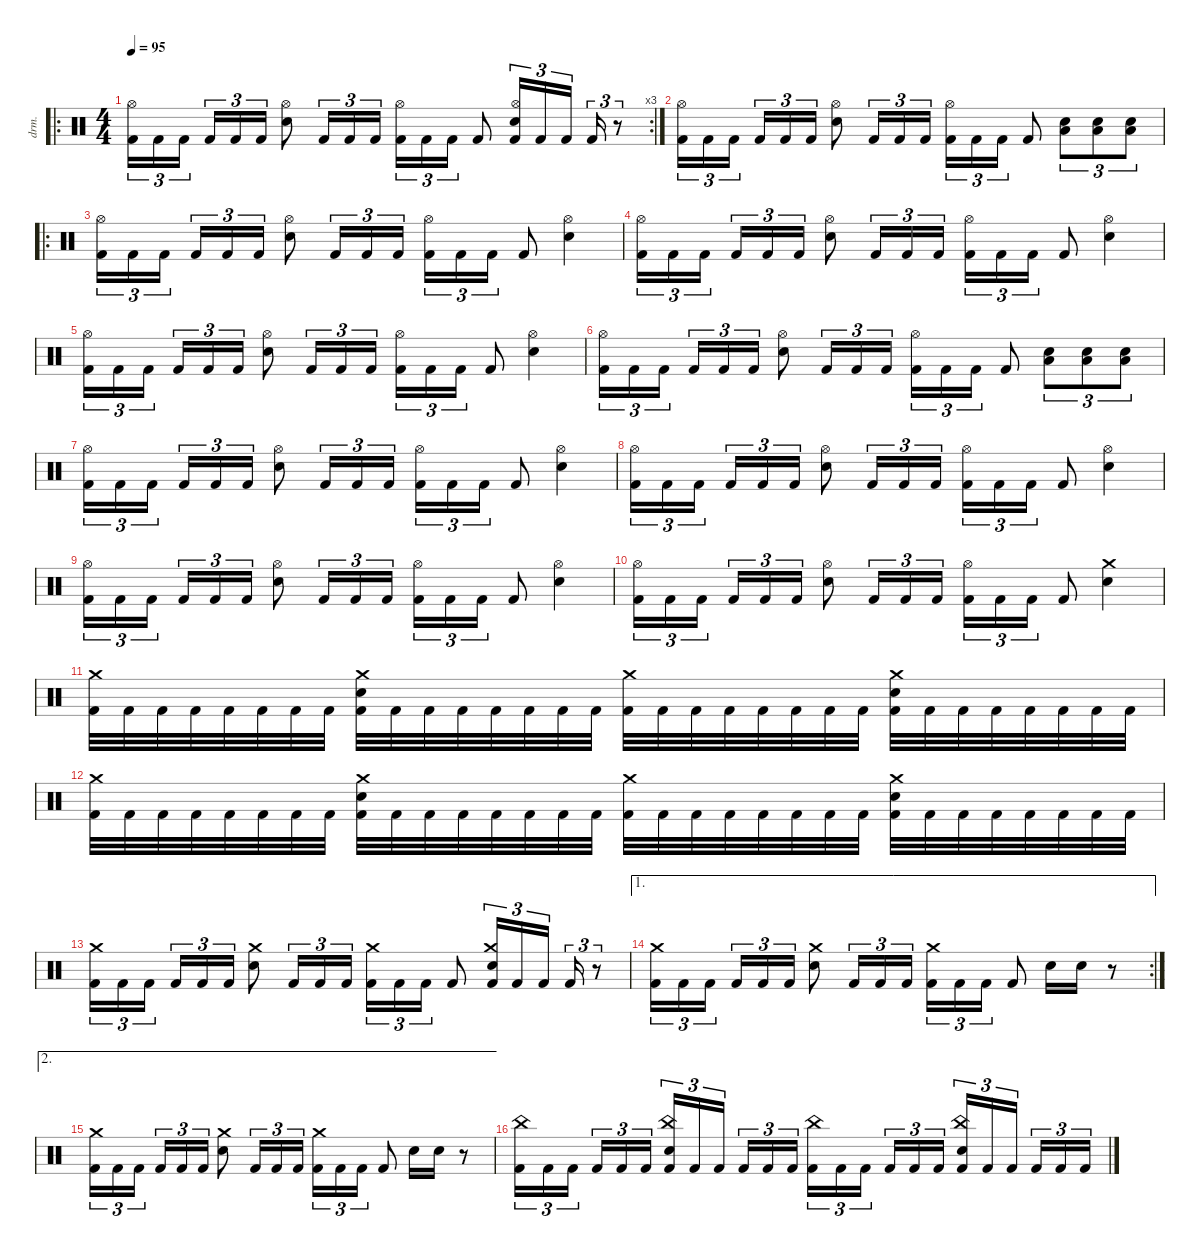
\defaultSystemsLayout 4
\hideDynamics
\bracketExtendMode nobrackets
\otherSystemsTrackNameOrientation horizontal
\track ("FATTY!" "drm.") {instrument percussion}
\staff {score}
\articulation defaults
\ro
\rc 3
\ts (4 4)
\tempo 95
\clef neutral
\ks c
("Hi-Hat (open)" "Kick (hit) 2").16{tu (3 2) dy f beam Down} "Kick (hit) 2".16{tu (3 2) beam Down} "Kick (hit) 2".16{tu (3 2) beam Down} "Kick (hit) 2".16{tu (3 2) beam Up} "Kick (hit) 2".16{tu (3 2) beam Up} "Kick (hit) 2".16{tu (3 2) beam Up} ("Hi-Hat (open)" "Snare (hit) 2").8{beam Down} "Kick (hit) 2".16{tu (3 2) beam Up} "Kick (hit) 2".16{tu (3 2) beam Up} "Kick (hit) 2".16{tu (3 2) beam Up} ("Hi-Hat (open)" "Kick (hit) 2").16{tu (3 2) beam Down} "Kick (hit) 2".16{tu (3 2) beam Down} "Kick (hit) 2".16{tu (3 2) beam Down} "Kick (hit) 2".8{beam Up} ("Hi-Hat (open)" "Snare (hit) 2" "Kick (hit) 2").16{tu (3 2) beam Up} "Kick (hit) 2".16{tu (3 2) beam Up} "Kick (hit) 2".16{tu (3 2) beam Up} "Kick (hit) 2".16{tu (3 2) beam Up} r.8{tu (3 2) beam Up} |
("Hi-Hat (open)" "Kick (hit) 2").16{tu (3 2) beam Down} "Kick (hit) 2".16{tu (3 2) beam Down} "Kick (hit) 2".16{tu (3 2) beam Down} "Kick (hit) 2".16{tu (3 2) beam Up} "Kick (hit) 2".16{tu (3 2) beam Up} "Kick (hit) 2".16{tu (3 2) beam Up} ("Hi-Hat (open)" "Snare (hit) 2").8{beam Down} "Kick (hit) 2".16{tu (3 2) beam Up} "Kick (hit) 2".16{tu (3 2) beam Up} "Kick (hit) 2".16{tu (3 2) beam Up} ("Hi-Hat (open)" "Kick (hit) 2").16{tu (3 2) beam Down} "Kick (hit) 2".16{tu (3 2) beam Down} "Kick (hit) 2".16{tu (3 2) beam Down} "Kick (hit) 2".8{beam Up} ("Low Tom (hit)" "Snare (hit) 2").8{tu (3 2) beam Down} ("Low Tom (hit)" "Snare (hit) 2").8{tu (3 2) beam Down} ("Low Tom (hit)" "Snare (hit) 2").8{tu (3 2) beam Down} |
\ro
("Hi-Hat (open)" "Kick (hit) 2").16{tu (3 2) beam Down} "Kick (hit) 2".16{tu (3 2) beam Down} "Kick (hit) 2".16{tu (3 2) beam Down} "Kick (hit) 2".16{tu (3 2) beam Up} "Kick (hit) 2".16{tu (3 2) beam Up} "Kick (hit) 2".16{tu (3 2) beam Up} ("Hi-Hat (open)" "Snare (hit) 2").8{beam Down} "Kick (hit) 2".16{tu (3 2) beam Up} "Kick (hit) 2".16{tu (3 2) beam Up} "Kick (hit) 2".16{tu (3 2) beam Up} ("Hi-Hat (open)" "Kick (hit) 2").16{tu (3 2) beam Down} "Kick (hit) 2".16{tu (3 2) beam Down} "Kick (hit) 2".16{tu (3 2) beam Down} "Kick (hit) 2".8{beam Up} ("Hi-Hat (open)" "Snare (hit) 2").4{beam Down} |
("Hi-Hat (open)" "Kick (hit) 2").16{tu (3 2) beam Down} "Kick (hit) 2".16{tu (3 2) beam Down} "Kick (hit) 2".16{tu (3 2) beam Down} "Kick (hit) 2".16{tu (3 2) beam Up} "Kick (hit) 2".16{tu (3 2) beam Up} "Kick (hit) 2".16{tu (3 2) beam Up} ("Hi-Hat (open)" "Snare (hit) 2").8{beam Down} "Kick (hit) 2".16{tu (3 2) beam Up} "Kick (hit) 2".16{tu (3 2) beam Up} "Kick (hit) 2".16{tu (3 2) beam Up} ("Hi-Hat (open)" "Kick (hit) 2").16{tu (3 2) beam Down} "Kick (hit) 2".16{tu (3 2) beam Down} "Kick (hit) 2".16{tu (3 2) beam Down} "Kick (hit) 2".8{beam Up} ("Hi-Hat (open)" "Snare (hit) 2").4{beam Down} |
("Hi-Hat (open)" "Kick (hit) 2").16{tu (3 2) beam Down} "Kick (hit) 2".16{tu (3 2) beam Down} "Kick (hit) 2".16{tu (3 2) beam Down} "Kick (hit) 2".16{tu (3 2) beam Up} "Kick (hit) 2".16{tu (3 2) beam Up} "Kick (hit) 2".16{tu (3 2) beam Up} ("Hi-Hat (open)" "Snare (hit) 2").8{beam Down} "Kick (hit) 2".16{tu (3 2) beam Up} "Kick (hit) 2".16{tu (3 2) beam Up} "Kick (hit) 2".16{tu (3 2) beam Up} ("Hi-Hat (open)" "Kick (hit) 2").16{tu (3 2) beam Down} "Kick (hit) 2".16{tu (3 2) beam Down} "Kick (hit) 2".16{tu (3 2) beam Down} "Kick (hit) 2".8{beam Up} ("Hi-Hat (open)" "Snare (hit) 2").4{beam Down} |
("Hi-Hat (open)" "Kick (hit) 2").16{tu (3 2) beam Down} "Kick (hit) 2".16{tu (3 2) beam Down} "Kick (hit) 2".16{tu (3 2) beam Down} "Kick (hit) 2".16{tu (3 2) beam Up} "Kick (hit) 2".16{tu (3 2) beam Up} "Kick (hit) 2".16{tu (3 2) beam Up} ("Hi-Hat (open)" "Snare (hit) 2").8{beam Down} "Kick (hit) 2".16{tu (3 2) beam Up} "Kick (hit) 2".16{tu (3 2) beam Up} "Kick (hit) 2".16{tu (3 2) beam Up} ("Hi-Hat (open)" "Kick (hit) 2").16{tu (3 2) beam Down} "Kick (hit) 2".16{tu (3 2) beam Down} "Kick (hit) 2".16{tu (3 2) beam Down} "Kick (hit) 2".8{beam Up} ("Low Tom (hit)" "Snare (hit) 2").8{tu (3 2) beam Down} ("Low Tom (hit)" "Snare (hit) 2").8{tu (3 2) beam Down} ("Low Tom (hit)" "Snare (hit) 2").8{tu (3 2) beam Down} |
("Hi-Hat (open)" "Kick (hit) 2").16{tu (3 2) beam Down} "Kick (hit) 2".16{tu (3 2) beam Down} "Kick (hit) 2".16{tu (3 2) beam Down} "Kick (hit) 2".16{tu (3 2) beam Up} "Kick (hit) 2".16{tu (3 2) beam Up} "Kick (hit) 2".16{tu (3 2) beam Up} ("Hi-Hat (open)" "Snare (hit) 2").8{beam Down} "Kick (hit) 2".16{tu (3 2) beam Up} "Kick (hit) 2".16{tu (3 2) beam Up} "Kick (hit) 2".16{tu (3 2) beam Up} ("Hi-Hat (open)" "Kick (hit) 2").16{tu (3 2) beam Down} "Kick (hit) 2".16{tu (3 2) beam Down} "Kick (hit) 2".16{tu (3 2) beam Down} "Kick (hit) 2".8{beam Up} ("Hi-Hat (open)" "Snare (hit) 2").4{beam Down} |
("Hi-Hat (open)" "Kick (hit) 2").16{tu (3 2) beam Down} "Kick (hit) 2".16{tu (3 2) beam Down} "Kick (hit) 2".16{tu (3 2) beam Down} "Kick (hit) 2".16{tu (3 2) beam Up} "Kick (hit) 2".16{tu (3 2) beam Up} "Kick (hit) 2".16{tu (3 2) beam Up} ("Hi-Hat (open)" "Snare (hit) 2").8{beam Down} "Kick (hit) 2".16{tu (3 2) beam Up} "Kick (hit) 2".16{tu (3 2) beam Up} "Kick (hit) 2".16{tu (3 2) beam Up} ("Hi-Hat (open)" "Kick (hit) 2").16{tu (3 2) beam Down} "Kick (hit) 2".16{tu (3 2) beam Down} "Kick (hit) 2".16{tu (3 2) beam Down} "Kick (hit) 2".8{beam Up} ("Hi-Hat (open)" "Snare (hit) 2").4{beam Down} |
("Hi-Hat (open)" "Kick (hit) 2").16{tu (3 2) beam Down} "Kick (hit) 2".16{tu (3 2) beam Down} "Kick (hit) 2".16{tu (3 2) beam Down} "Kick (hit) 2".16{tu (3 2) beam Up} "Kick (hit) 2".16{tu (3 2) beam Up} "Kick (hit) 2".16{tu (3 2) beam Up} ("Hi-Hat (open)" "Snare (hit) 2").8{beam Down} "Kick (hit) 2".16{tu (3 2) beam Up} "Kick (hit) 2".16{tu (3 2) beam Up} "Kick (hit) 2".16{tu (3 2) beam Up} ("Hi-Hat (open)" "Kick (hit) 2").16{tu (3 2) beam Down} "Kick (hit) 2".16{tu (3 2) beam Down} "Kick (hit) 2".16{tu (3 2) beam Down} "Kick (hit) 2".8{beam Up} ("Hi-Hat (open)" "Snare (hit) 2").4{beam Down} |
("Hi-Hat (open)" "Kick (hit) 2").16{tu (3 2) beam Down} "Kick (hit) 2".16{tu (3 2) beam Down} "Kick (hit) 2".16{tu (3 2) beam Down} "Kick (hit) 2".16{tu (3 2) beam Up} "Kick (hit) 2".16{tu (3 2) beam Up} "Kick (hit) 2".16{tu (3 2) beam Up} ("Hi-Hat (open)" "Snare (hit) 2").8{beam Down} "Kick (hit) 2".16{tu (3 2) beam Up} "Kick (hit) 2".16{tu (3 2) beam Up} "Kick (hit) 2".16{tu (3 2) beam Up} ("Hi-Hat (open)" "Kick (hit) 2").16{tu (3 2) beam Down} "Kick (hit) 2".16{tu (3 2) beam Down} "Kick (hit) 2".16{tu (3 2) beam Down} "Kick (hit) 2".8{beam Up} ("Crash medium (hit)" "Snare (hit) 2").4{beam Down} |
("Crash medium (hit)" "Kick (hit) 2").32{beam Down} "Kick (hit) 2".32{beam Down} "Kick (hit) 2".32{beam Down} "Kick (hit) 2".32{beam Down} "Kick (hit) 2".32{beam Down} "Kick (hit) 2".32{beam Down} "Kick (hit) 2".32{beam Down} "Kick (hit) 2".32{beam Down} ("Crash medium (hit)" "Snare (hit) 2" "Kick (hit) 2").32{beam Down} "Kick (hit) 2".32{beam Down} "Kick (hit) 2".32{beam Down} "Kick (hit) 2".32{beam Down} "Kick (hit) 2".32{beam Down} "Kick (hit) 2".32{beam Down} "Kick (hit) 2".32{beam Down} "Kick (hit) 2".32{beam Down} ("Crash medium (hit)" "Kick (hit) 2").32{beam Down} "Kick (hit) 2".32{beam Down} "Kick (hit) 2".32{beam Down} "Kick (hit) 2".32{beam Down} "Kick (hit) 2".32{beam Down} "Kick (hit) 2".32{beam Down} "Kick (hit) 2".32{beam Down} "Kick (hit) 2".32{beam Down} ("Crash medium (hit)" "Snare (hit) 2" "Kick (hit) 2").32{beam Down} "Kick (hit) 2".32{beam Down} "Kick (hit) 2".32{beam Down} "Kick (hit) 2".32{beam Down} "Kick (hit) 2".32{beam Down} "Kick (hit) 2".32{beam Down} "Kick (hit) 2".32{beam Down} "Kick (hit) 2".32{beam Down} |
("Crash medium (hit)" "Kick (hit) 2").32{beam Down} "Kick (hit) 2".32{beam Down} "Kick (hit) 2".32{beam Down} "Kick (hit) 2".32{beam Down} "Kick (hit) 2".32{beam Down} "Kick (hit) 2".32{beam Down} "Kick (hit) 2".32{beam Down} "Kick (hit) 2".32{beam Down} ("Crash medium (hit)" "Snare (hit) 2" "Kick (hit) 2").32{beam Down} "Kick (hit) 2".32{beam Down} "Kick (hit) 2".32{beam Down} "Kick (hit) 2".32{beam Down} "Kick (hit) 2".32{beam Down} "Kick (hit) 2".32{beam Down} "Kick (hit) 2".32{beam Down} "Kick (hit) 2".32{beam Down} ("Crash medium (hit)" "Kick (hit) 2").32{beam Down} "Kick (hit) 2".32{beam Down} "Kick (hit) 2".32{beam Down} "Kick (hit) 2".32{beam Down} "Kick (hit) 2".32{beam Down} "Kick (hit) 2".32{beam Down} "Kick (hit) 2".32{beam Down} "Kick (hit) 2".32{beam Down} ("Crash medium (hit)" "Snare (hit) 2" "Kick (hit) 2").32{beam Down} "Kick (hit) 2".32{beam Down} "Kick (hit) 2".32{beam Down} "Kick (hit) 2".32{beam Down} "Kick (hit) 2".32{beam Down} "Kick (hit) 2".32{beam Down} "Kick (hit) 2".32{beam Down} "Kick (hit) 2".32{beam Down} |
("Crash medium (hit)" "Kick (hit) 2").16{tu (3 2) beam Down} "Kick (hit) 2".16{tu (3 2) beam Down} "Kick (hit) 2".16{tu (3 2) beam Down} "Kick (hit) 2".16{tu (3 2) beam Up} "Kick (hit) 2".16{tu (3 2) beam Up} "Kick (hit) 2".16{tu (3 2) beam Up} ("Crash medium (hit)" "Snare (hit) 2").8{beam Down} "Kick (hit) 2".16{tu (3 2) beam Up} "Kick (hit) 2".16{tu (3 2) beam Up} "Kick (hit) 2".16{tu (3 2) beam Up} ("Crash medium (hit)" "Kick (hit) 2").16{tu (3 2) beam Down} "Kick (hit) 2".16{tu (3 2) beam Down} "Kick (hit) 2".16{tu (3 2) beam Down} "Kick (hit) 2".8{beam Up} ("Crash medium (hit)" "Snare (hit) 2" "Kick (hit) 2").16{tu (3 2) beam Up} "Kick (hit) 2".16{tu (3 2) beam Up} "Kick (hit) 2".16{tu (3 2) beam Up} "Kick (hit) 2".16{tu (3 2) beam Up} r.8{tu (3 2) beam Up} |
\ae 1
\rc 2
("Crash medium (hit)" "Kick (hit) 2").16{tu (3 2) beam Down} "Kick (hit) 2".16{tu (3 2) beam Down} "Kick (hit) 2".16{tu (3 2) beam Down} "Kick (hit) 2".16{tu (3 2) beam Up} "Kick (hit) 2".16{tu (3 2) beam Up} "Kick (hit) 2".16{tu (3 2) beam Up} ("Crash medium (hit)" "Snare (hit) 2").8{beam Down} "Kick (hit) 2".16{tu (3 2) beam Up} "Kick (hit) 2".16{tu (3 2) beam Up} "Kick (hit) 2".16{tu (3 2) beam Up} ("Crash medium (hit)" "Kick (hit) 2").16{tu (3 2) beam Down} "Kick (hit) 2".16{tu (3 2) beam Down} "Kick (hit) 2".16{tu (3 2) beam Down} "Kick (hit) 2".8{beam Up} "Snare (hit) 2".16{beam Down} "Snare (hit) 2".16{beam Down} r.8{beam Down} |
\ae 2
("Crash medium (hit)" "Kick (hit) 2").16{tu (3 2) beam Down} "Kick (hit) 2".16{tu (3 2) beam Down} "Kick (hit) 2".16{tu (3 2) beam Down} "Kick (hit) 2".16{tu (3 2) beam Up} "Kick (hit) 2".16{tu (3 2) beam Up} "Kick (hit) 2".16{tu (3 2) beam Up} ("Crash medium (hit)" "Snare (hit) 2").8{beam Down} "Kick (hit) 2".16{tu (3 2) beam Up} "Kick (hit) 2".16{tu (3 2) beam Up} "Kick (hit) 2".16{tu (3 2) beam Up} ("Crash medium (hit)" "Kick (hit) 2").16{tu (3 2) beam Down} "Kick (hit) 2".16{tu (3 2) beam Down} "Kick (hit) 2".16{tu (3 2) beam Down} "Kick (hit) 2".8{beam Up} "Snare (hit) 2".16{beam Down} "Snare (hit) 2".16{beam Down} r.8{beam Down} |
("China (hit)" "Kick (hit) 2").16{tu (3 2) beam Down} "Kick (hit) 2".16{tu (3 2) beam Down} "Kick (hit) 2".16{tu (3 2) beam Down} "Kick (hit) 2".16{tu (3 2) beam Up} "Kick (hit) 2".16{tu (3 2) beam Up} "Kick (hit) 2".16{tu (3 2) beam Up} ("China (hit)" "Snare (hit) 2" "Kick (hit) 2").16{tu (3 2) beam Up} "Kick (hit) 2".16{tu (3 2) beam Up} "Kick (hit) 2".16{tu (3 2) beam Up} "Kick (hit) 2".16{tu (3 2) beam Up} "Kick (hit) 2".16{tu (3 2) beam Up} "Kick (hit) 2".16{tu (3 2) beam Up} ("China (hit)" "Kick (hit) 2").16{tu (3 2) beam Down} "Kick (hit) 2".16{tu (3 2) beam Down} "Kick (hit) 2".16{tu (3 2) beam Down} "Kick (hit) 2".16{tu (3 2) beam Up} "Kick (hit) 2".16{tu (3 2) beam Up} "Kick (hit) 2".16{tu (3 2) beam Up} ("China (hit)" "Snare (hit) 2" "Kick (hit) 2").16{tu (3 2) beam Up} "Kick (hit) 2".16{tu (3 2) beam Up} "Kick (hit) 2".16{tu (3 2) beam Up} "Kick (hit) 2".16{tu (3 2) beam Up} "Kick (hit) 2".16{tu (3 2) beam Up} "Kick (hit) 2".16{tu (3 2) beam Up}
